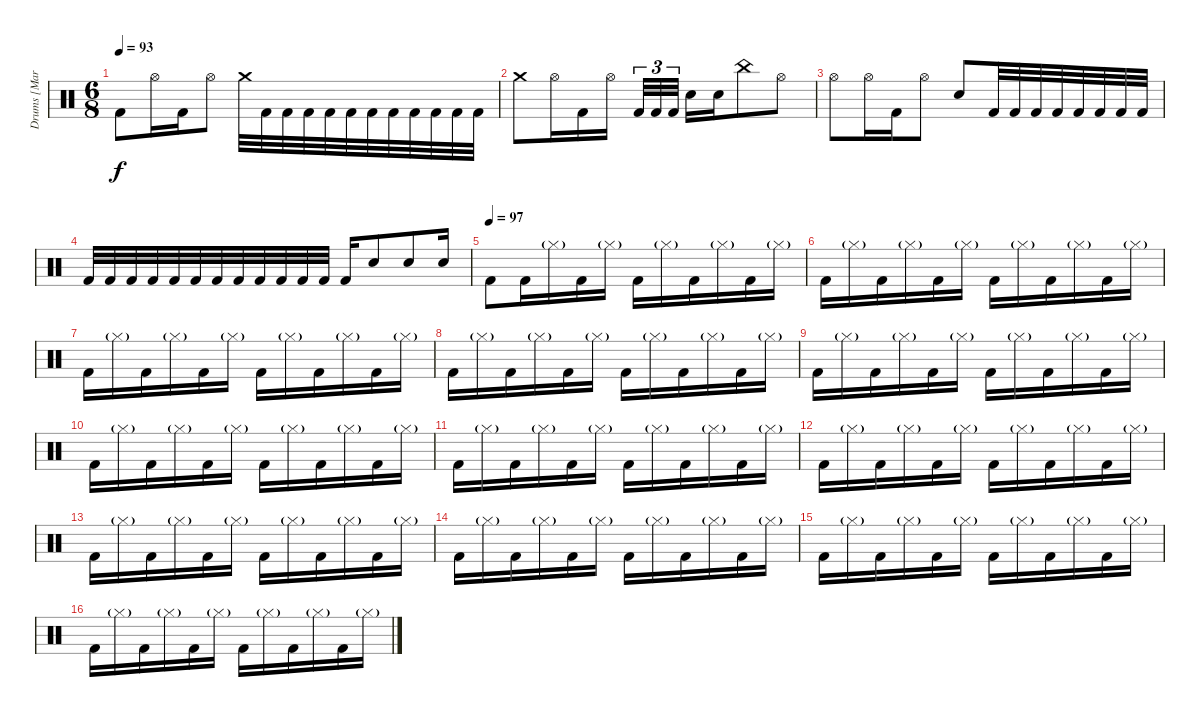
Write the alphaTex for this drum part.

\track ("Drums [Martin Lopez]" "Drums [Mar") {instrument percussion}
\staff {score}
\articulation defaults
\ts (6 8)
\tempo 93
\clef neutral
\ks c "Kick (hit) 2".8{dy f} "Hi-Hat (open)".16 "Kick (hit) 2".16 "Hi-Hat (open)".8 "Crash medium (hit)".32 "Kick (hit) 2".32 "Kick (hit) 2".32 "Kick (hit) 2".32 "Kick (hit) 2".32 "Kick (hit) 2".32 "Kick (hit) 2".32 "Kick (hit) 2".32 "Kick (hit) 2".32 "Kick (hit) 2".32 "Kick (hit) 2".32 "Kick (hit) 2".32
|
"Crash medium (hit)".8 "Hi-Hat (open)".16 "Kick (hit) 2".16 "Hi-Hat (open)".16{beam splitsecondary} "Kick (hit) 2".32{tu (3 2)} "Kick (hit) 2".32{tu (3 2)} "Kick (hit) 2".32{tu (3 2)} "Snare (hit) 2".16 "Snare (hit) 2".16 "China (hit)".8 "Hi-Hat (open)".8 |
"Hi-Hat (open)".8 "Hi-Hat (open)".16 "Kick (hit) 2".16 "Hi-Hat (open)".8 "Snare (hit) 2".8 "Kick (hit) 2".32 "Kick (hit) 2".32 "Kick (hit) 2".32 "Kick (hit) 2".32 "Kick (hit) 2".32 "Kick (hit) 2".32 "Kick (hit) 2".32 "Kick (hit) 2".32 |
"Kick (hit) 2".32 "Kick (hit) 2".32 "Kick (hit) 2".32 "Kick (hit) 2".32 "Kick (hit) 2".32 "Kick (hit) 2".32 "Kick (hit) 2".32 "Kick (hit) 2".32 "Kick (hit) 2".32 "Kick (hit) 2".32 "Kick (hit) 2".32 "Kick (hit) 2".32 "Kick (hit) 2".16 "Snare (hit) 2".8 "Snare (hit) 2".8 "Snare (hit) 2".16 |
\tempo (97)
"Kick (hit) 2".8 "Kick (hit) 2".16 "Hi-Hat (closed)"{g}.16 "Kick (hit) 2".16 "Hi-Hat (closed)"{g}.16 "Kick (hit) 2".16 "Hi-Hat (closed)"{g}.16 "Kick (hit) 2".16 "Hi-Hat (closed)"{g}.16 "Kick (hit) 2".16 "Hi-Hat (closed)"{g}.16 |
"Kick (hit) 2".16 "Hi-Hat (closed)"{g}.16 "Kick (hit) 2".16 "Hi-Hat (closed)"{g}.16 "Kick (hit) 2".16 "Hi-Hat (closed)"{g}.16 "Kick (hit) 2".16 "Hi-Hat (closed)"{g}.16 "Kick (hit) 2".16 "Hi-Hat (closed)"{g}.16 "Kick (hit) 2".16 "Hi-Hat (closed)"{g}.16 |
"Kick (hit) 2".16 "Hi-Hat (closed)"{g}.16 "Kick (hit) 2".16 "Hi-Hat (closed)"{g}.16 "Kick (hit) 2".16 "Hi-Hat (closed)"{g}.16 "Kick (hit) 2".16 "Hi-Hat (closed)"{g}.16 "Kick (hit) 2".16 "Hi-Hat (closed)"{g}.16 "Kick (hit) 2".16 "Hi-Hat (closed)"{g}.16 |
"Kick (hit) 2".16 "Hi-Hat (closed)"{g}.16 "Kick (hit) 2".16 "Hi-Hat (closed)"{g}.16 "Kick (hit) 2".16 "Hi-Hat (closed)"{g}.16 "Kick (hit) 2".16 "Hi-Hat (closed)"{g}.16 "Kick (hit) 2".16 "Hi-Hat (closed)"{g}.16 "Kick (hit) 2".16 "Hi-Hat (closed)"{g}.16 |
"Kick (hit) 2".16 "Hi-Hat (closed)"{g}.16 "Kick (hit) 2".16 "Hi-Hat (closed)"{g}.16 "Kick (hit) 2".16 "Hi-Hat (closed)"{g}.16 "Kick (hit) 2".16 "Hi-Hat (closed)"{g}.16 "Kick (hit) 2".16 "Hi-Hat (closed)"{g}.16 "Kick (hit) 2".16 "Hi-Hat (closed)"{g}.16 |
"Kick (hit) 2".16 "Hi-Hat (closed)"{g}.16 "Kick (hit) 2".16 "Hi-Hat (closed)"{g}.16 "Kick (hit) 2".16 "Hi-Hat (closed)"{g}.16 "Kick (hit) 2".16 "Hi-Hat (closed)"{g}.16 "Kick (hit) 2".16 "Hi-Hat (closed)"{g}.16 "Kick (hit) 2".16 "Hi-Hat (closed)"{g}.16 |
"Kick (hit) 2".16 "Hi-Hat (closed)"{g}.16 "Kick (hit) 2".16 "Hi-Hat (closed)"{g}.16 "Kick (hit) 2".16 "Hi-Hat (closed)"{g}.16 "Kick (hit) 2".16 "Hi-Hat (closed)"{g}.16 "Kick (hit) 2".16 "Hi-Hat (closed)"{g}.16 "Kick (hit) 2".16 "Hi-Hat (closed)"{g}.16 |
"Kick (hit) 2".16 "Hi-Hat (closed)"{g}.16 "Kick (hit) 2".16 "Hi-Hat (closed)"{g}.16 "Kick (hit) 2".16 "Hi-Hat (closed)"{g}.16 "Kick (hit) 2".16 "Hi-Hat (closed)"{g}.16 "Kick (hit) 2".16 "Hi-Hat (closed)"{g}.16 "Kick (hit) 2".16 "Hi-Hat (closed)"{g}.16 |
"Kick (hit) 2".16 "Hi-Hat (closed)"{g}.16 "Kick (hit) 2".16 "Hi-Hat (closed)"{g}.16 "Kick (hit) 2".16 "Hi-Hat (closed)"{g}.16 "Kick (hit) 2".16 "Hi-Hat (closed)"{g}.16 "Kick (hit) 2".16 "Hi-Hat (closed)"{g}.16 "Kick (hit) 2".16 "Hi-Hat (closed)"{g}.16 |
"Kick (hit) 2".16 "Hi-Hat (closed)"{g}.16 "Kick (hit) 2".16 "Hi-Hat (closed)"{g}.16 "Kick (hit) 2".16 "Hi-Hat (closed)"{g}.16 "Kick (hit) 2".16 "Hi-Hat (closed)"{g}.16 "Kick (hit) 2".16 "Hi-Hat (closed)"{g}.16 "Kick (hit) 2".16 "Hi-Hat (closed)"{g}.16 |
"Kick (hit) 2".16 "Hi-Hat (closed)"{g}.16 "Kick (hit) 2".16 "Hi-Hat (closed)"{g}.16 "Kick (hit) 2".16 "Hi-Hat (closed)"{g}.16 "Kick (hit) 2".16 "Hi-Hat (closed)"{g}.16 "Kick (hit) 2".16 "Hi-Hat (closed)"{g}.16 "Kick (hit) 2".16 "Hi-Hat (closed)"{g}.16 |
"Kick (hit) 2".16 "Hi-Hat (closed)"{g}.16 "Kick (hit) 2".16 "Hi-Hat (closed)"{g}.16 "Kick (hit) 2".16 "Hi-Hat (closed)"{g}.16 "Kick (hit) 2".16 "Hi-Hat (closed)"{g}.16 "Kick (hit) 2".16 "Hi-Hat (closed)"{g}.16 "Kick (hit) 2".16 "Hi-Hat (closed)"{g}.16
